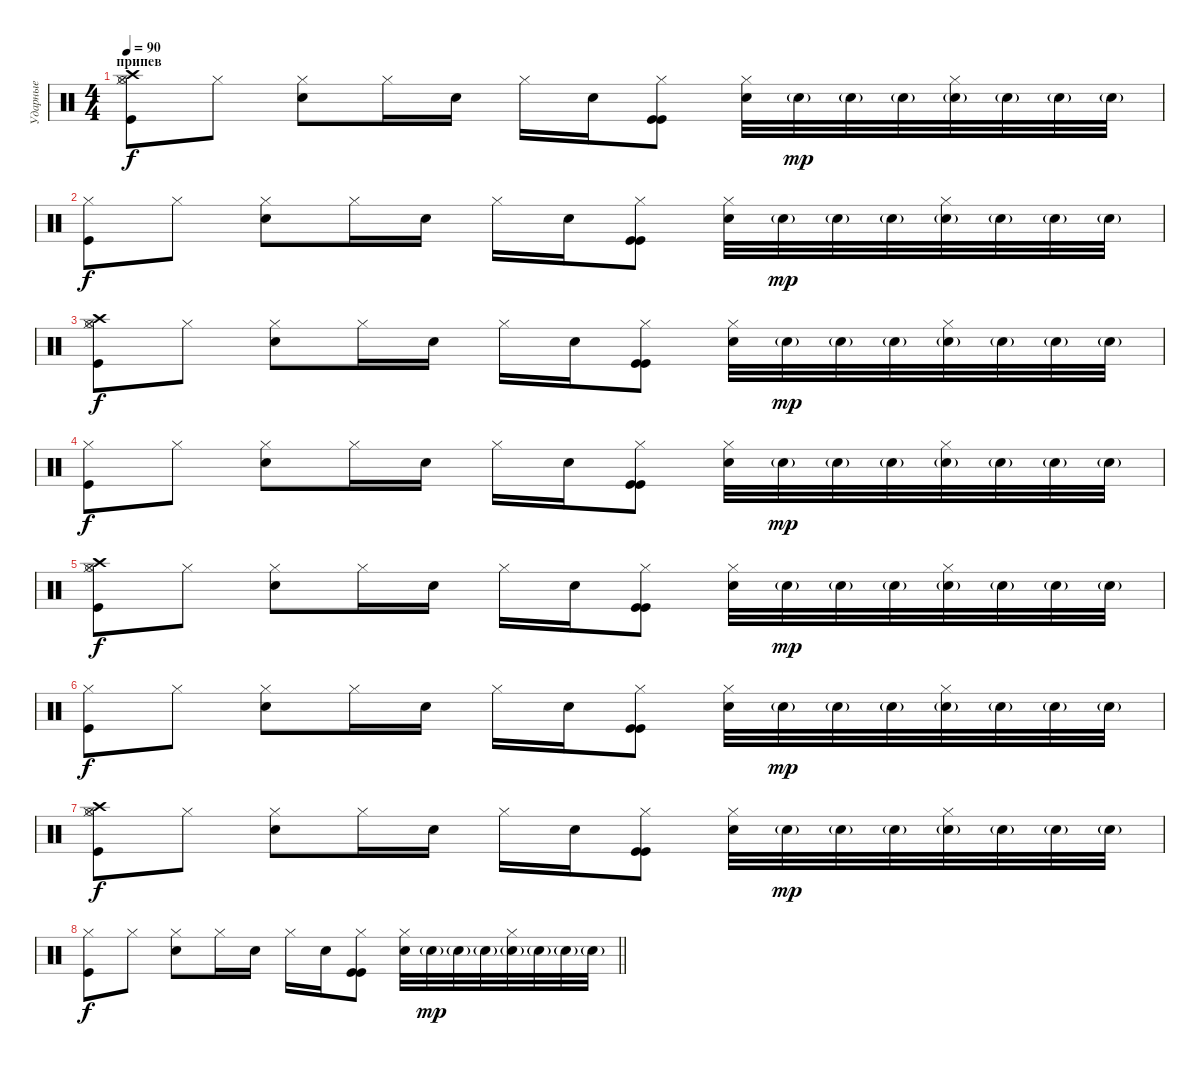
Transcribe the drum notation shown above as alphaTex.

\track ("Ударные" "Ударные") {instrument percussion}
\staff {score}
\articulation defaults
\ts (4 4)
\section ("" "припев")
\tempo 90
\clef neutral
\ks c
("Hi-Hat (closed)" "Kick (hit)" "Hi-Hat (open)" "Crash high (hit)").8{dy f volume 16} "Hi-Hat (closed)".8 ("Hi-Hat (closed)" "Electric Snare (hit)").8 "Hi-Hat (closed)".16 "Electric Snare (hit)".16 "Hi-Hat (closed)".16 "Electric Snare (hit)".16 ("Hi-Hat (closed)" "Kick (hit)" "Kick (hit)").8 ("Hi-Hat (closed)" "Electric Snare (hit)").32 "Snare (hit) 2"{g}.32{dy mp} "Snare (hit) 2"{g}.32 "Snare (hit) 2"{g}.32 ("Snare (hit) 2"{g} "Hi-Hat (closed)").32 "Snare (hit) 2"{g}.32 "Snare (hit) 2"{g}.32 "Snare (hit) 2"{g}.32 |
("Hi-Hat (closed)" "Kick (hit)").8{dy f} "Hi-Hat (closed)".8 ("Hi-Hat (closed)" "Electric Snare (hit)").8 "Hi-Hat (closed)".16 "Electric Snare (hit)".16 "Hi-Hat (closed)".16 "Electric Snare (hit)".16 ("Hi-Hat (closed)" "Kick (hit)" "Kick (hit)").8 ("Hi-Hat (closed)" "Electric Snare (hit)").32 "Snare (hit) 2"{g}.32{dy mp} "Snare (hit) 2"{g}.32 "Snare (hit) 2"{g}.32 ("Snare (hit) 2"{g} "Hi-Hat (closed)").32 "Snare (hit) 2"{g}.32 "Snare (hit) 2"{g}.32 "Snare (hit) 2"{g}.32 |
("Hi-Hat (closed)" "Kick (hit)" "Hi-Hat (open)" "Crash high (hit)").8{dy f} "Hi-Hat (closed)".8 ("Hi-Hat (closed)" "Electric Snare (hit)").8 "Hi-Hat (closed)".16 "Electric Snare (hit)".16 "Hi-Hat (closed)".16 "Electric Snare (hit)".16 ("Hi-Hat (closed)" "Kick (hit)" "Kick (hit)").8 ("Hi-Hat (closed)" "Electric Snare (hit)").32 "Snare (hit) 2"{g}.32{dy mp} "Snare (hit) 2"{g}.32 "Snare (hit) 2"{g}.32 ("Snare (hit) 2"{g} "Hi-Hat (closed)").32 "Snare (hit) 2"{g}.32 "Snare (hit) 2"{g}.32 "Snare (hit) 2"{g}.32 |
("Hi-Hat (closed)" "Kick (hit)").8{dy f} "Hi-Hat (closed)".8 ("Hi-Hat (closed)" "Electric Snare (hit)").8 "Hi-Hat (closed)".16 "Electric Snare (hit)".16 "Hi-Hat (closed)".16 "Electric Snare (hit)".16 ("Hi-Hat (closed)" "Kick (hit)" "Kick (hit)").8 ("Hi-Hat (closed)" "Electric Snare (hit)").32 "Snare (hit) 2"{g}.32{dy mp} "Snare (hit) 2"{g}.32 "Snare (hit) 2"{g}.32 ("Snare (hit) 2"{g} "Hi-Hat (closed)").32 "Snare (hit) 2"{g}.32 "Snare (hit) 2"{g}.32 "Snare (hit) 2"{g}.32 |
("Hi-Hat (closed)" "Kick (hit)" "Hi-Hat (open)" "Crash high (hit)").8{dy f volume 16} "Hi-Hat (closed)".8 ("Hi-Hat (closed)" "Electric Snare (hit)").8 "Hi-Hat (closed)".16 "Electric Snare (hit)".16 "Hi-Hat (closed)".16 "Electric Snare (hit)".16 ("Hi-Hat (closed)" "Kick (hit)" "Kick (hit)").8 ("Hi-Hat (closed)" "Electric Snare (hit)").32 "Snare (hit) 2"{g}.32{dy mp} "Snare (hit) 2"{g}.32 "Snare (hit) 2"{g}.32 ("Snare (hit) 2"{g} "Hi-Hat (closed)").32 "Snare (hit) 2"{g}.32 "Snare (hit) 2"{g}.32 "Snare (hit) 2"{g}.32 |
("Hi-Hat (closed)" "Kick (hit)").8{dy f} "Hi-Hat (closed)".8 ("Hi-Hat (closed)" "Electric Snare (hit)").8 "Hi-Hat (closed)".16 "Electric Snare (hit)".16 "Hi-Hat (closed)".16 "Electric Snare (hit)".16 ("Hi-Hat (closed)" "Kick (hit)" "Kick (hit)").8 ("Hi-Hat (closed)" "Electric Snare (hit)").32 "Snare (hit) 2"{g}.32{dy mp} "Snare (hit) 2"{g}.32 "Snare (hit) 2"{g}.32 ("Snare (hit) 2"{g} "Hi-Hat (closed)").32 "Snare (hit) 2"{g}.32 "Snare (hit) 2"{g}.32 "Snare (hit) 2"{g}.32 |
("Hi-Hat (closed)" "Kick (hit)" "Hi-Hat (open)" "Crash high (hit)").8{dy f volume 16} "Hi-Hat (closed)".8 ("Hi-Hat (closed)" "Electric Snare (hit)").8 "Hi-Hat (closed)".16 "Electric Snare (hit)".16 "Hi-Hat (closed)".16 "Electric Snare (hit)".16 ("Hi-Hat (closed)" "Kick (hit)" "Kick (hit)").8 ("Hi-Hat (closed)" "Electric Snare (hit)").32 "Snare (hit) 2"{g}.32{dy mp} "Snare (hit) 2"{g}.32 "Snare (hit) 2"{g}.32 ("Snare (hit) 2"{g} "Hi-Hat (closed)").32 "Snare (hit) 2"{g}.32 "Snare (hit) 2"{g}.32 "Snare (hit) 2"{g}.32 |
\barLineRight lightlight
("Hi-Hat (closed)" "Kick (hit)").8{dy f} "Hi-Hat (closed)".8 ("Hi-Hat (closed)" "Electric Snare (hit)").8 "Hi-Hat (closed)".16 "Electric Snare (hit)".16 "Hi-Hat (closed)".16 "Electric Snare (hit)".16 ("Hi-Hat (closed)" "Kick (hit)" "Kick (hit)").8 ("Hi-Hat (closed)" "Electric Snare (hit)").32 "Snare (hit) 2"{g}.32{dy mp} "Snare (hit) 2"{g}.32 "Snare (hit) 2"{g}.32 ("Snare (hit) 2"{g} "Hi-Hat (closed)").32 "Snare (hit) 2"{g}.32 "Snare (hit) 2"{g}.32 "Snare (hit) 2"{g}.32
